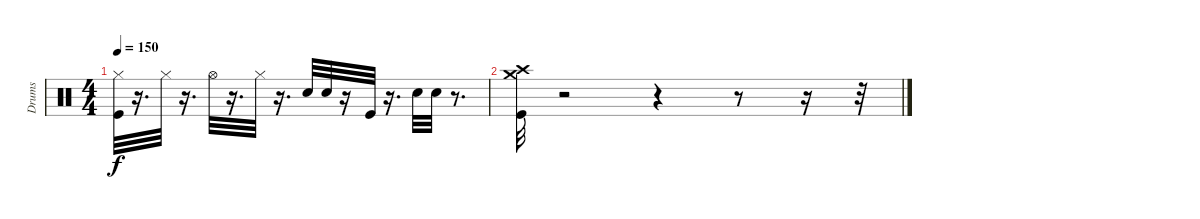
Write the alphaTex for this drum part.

\track ("Drums" "Drums") {instrument percussion}
\staff {score}
\articulation defaults
\ts (4 4)
\tempo 150
\clef neutral
\ks c
("Hi-Hat (closed)" "Kick (hit)").32{dy f} r.16{d} "Hi-Hat (closed)".32 r.16{d} "Hi-Hat (open)".32 r.16{d} "Hi-Hat (closed)".32 r.16{d} "Snare (hit) 2".32 "Snare (hit) 2".32 r.16 "Kick (hit)".32 r.16{d} "Snare (hit) 2".32 "Snare (hit) 2".32 r.8{d} |
("Crash medium (hit)" "Kick (hit)" "Crash high (hit)").32 r.2 r.4 r.8 r.16 r.32
